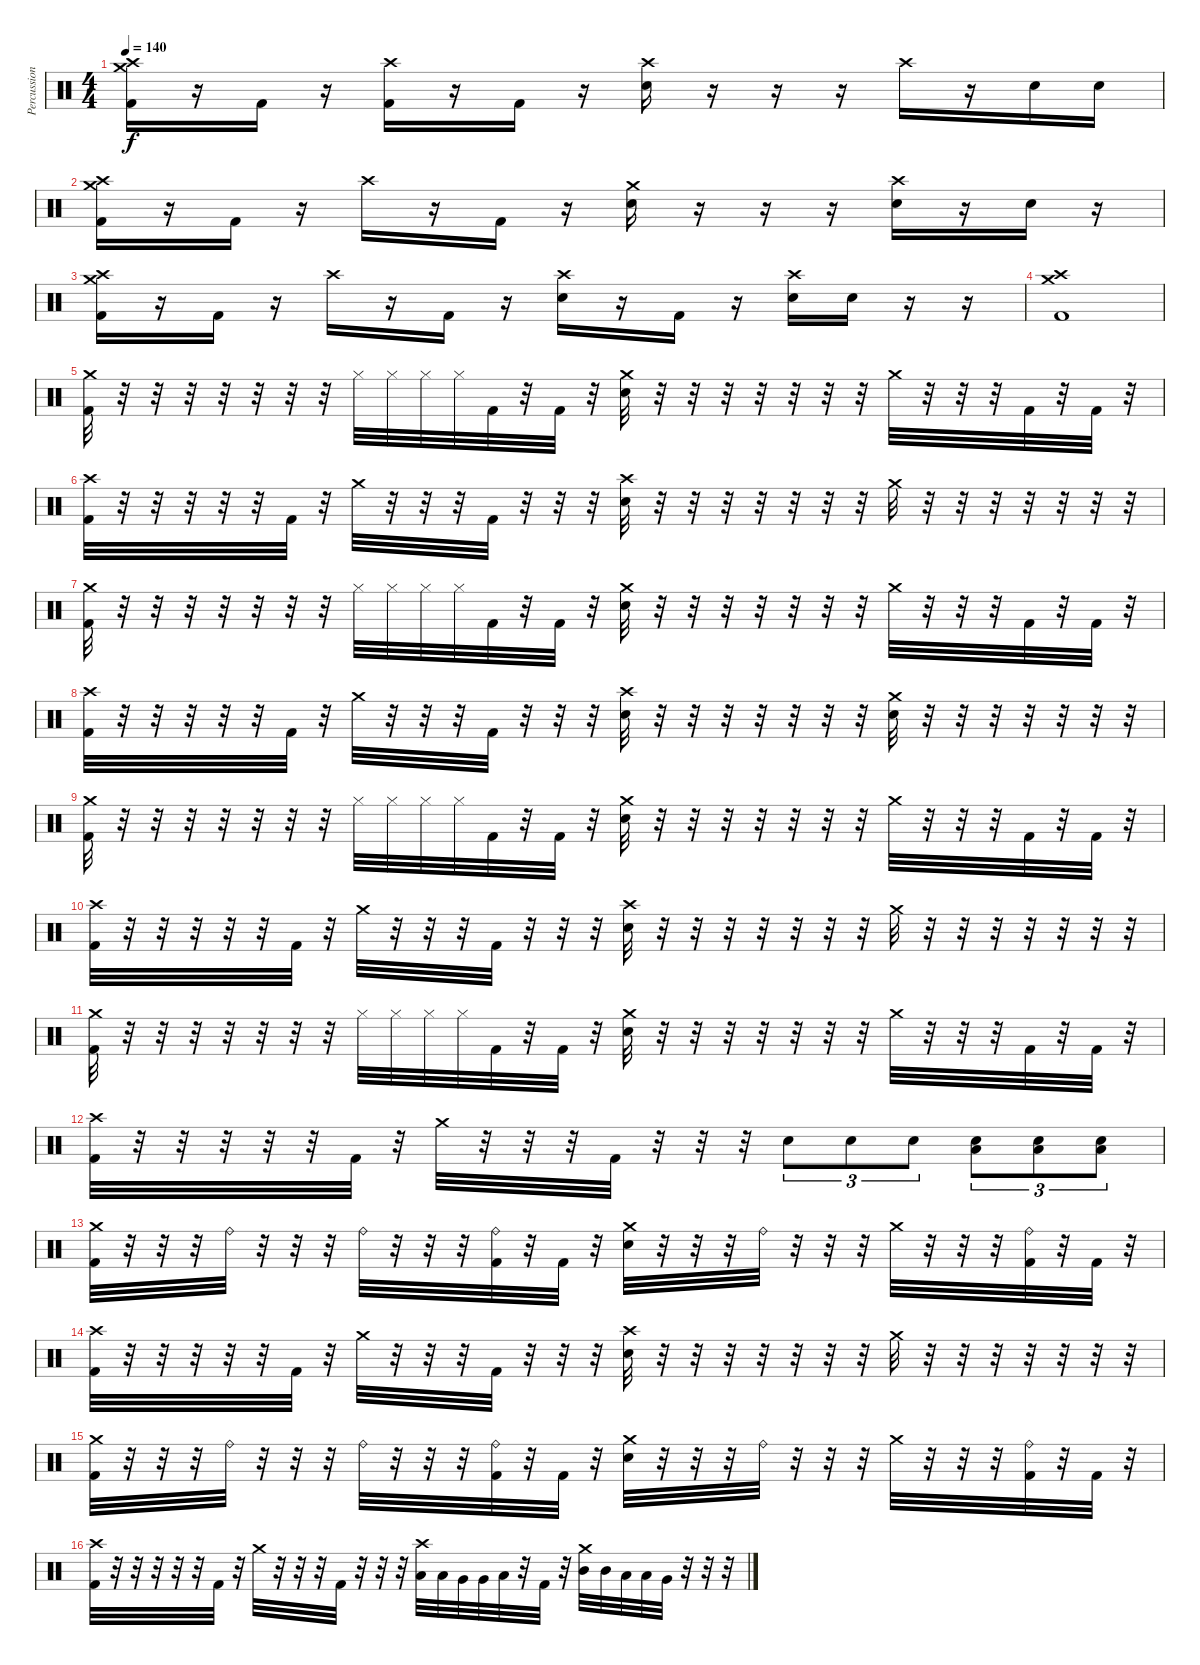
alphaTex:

\track ("Percussion" "Percussion") {instrument percussion}
\staff {score}
\articulation defaults
\ts (4 4)
\tempo 140
\clef neutral
\ks c
("Crash high (hit)" "Crash medium (hit)" "Kick (hit) 2").16{dy f} r.16 "Kick (hit) 2".16 r.16 ("Crash high (hit)" "Kick (hit) 2").16 r.16 "Kick (hit) 2".16 r.16 ("Crash high (hit)" "Electric Snare (hit)").16 r.16 r.16 r.16 "Crash high (hit)".16 r.16 "Electric Snare (hit)".16 "Electric Snare (hit)".16 |
("Crash medium (hit)" "Crash high (hit)" "Kick (hit) 2").16 r.16 "Kick (hit) 2".16 r.16 "Crash high (hit)".16 r.16 "Kick (hit) 2".16 r.16 ("Crash medium (hit)" "Electric Snare (hit)").16 r.16 r.16 r.16 ("Crash high (hit)" "Electric Snare (hit)").16 r.16 "Electric Snare (hit)".16 r.16 |
("Crash high (hit)" "Crash medium (hit)" "Kick (hit) 2").16 r.16 "Kick (hit) 2".16 r.16 "Crash high (hit)".16 r.16 "Kick (hit) 2".16 r.16 ("Crash high (hit)" "Electric Snare (hit)").16 r.16 "Kick (hit) 2".16 r.16 ("Crash high (hit)" "Electric Snare (hit)").16 "Electric Snare (hit)".16 r.16 r.16 |
("Crash high (hit)" "Crash medium (hit)" "Kick (hit) 2").1 |
("Crash medium (hit)" "Kick (hit) 2").32 r.32 r.32 r.32 r.32 r.32 r.32 r.32 "Hi-Hat (closed)".32 "Hi-Hat (closed)".32 "Hi-Hat (closed)".32 "Hi-Hat (closed)".32 "Kick (hit) 2".32 r.32 "Kick (hit) 2".32 r.32 ("Crash medium (hit)" "Electric Snare (hit)").32 r.32 r.32 r.32 r.32 r.32 r.32 r.32 "Crash medium (hit)".32 r.32 r.32 r.32 "Kick (hit) 2".32 r.32 "Kick (hit) 2".32 r.32 |
("Crash high (hit)" "Kick (hit) 2").32 r.32 r.32 r.32 r.32 r.32 "Kick (hit) 2".32 r.32 "Crash medium (hit)".32 r.32 r.32 r.32 "Kick (hit) 2".32 r.32 r.32 r.32 ("Crash high (hit)" "Electric Snare (hit)").32 r.32 r.32 r.32 r.32 r.32 r.32 r.32 "Crash medium (hit)".32 r.32 r.32 r.32 r.32 r.32 r.32 r.32 |
("Crash medium (hit)" "Kick (hit) 2").32 r.32 r.32 r.32 r.32 r.32 r.32 r.32 "Hi-Hat (closed)".32 "Hi-Hat (closed)".32 "Hi-Hat (closed)".32 "Hi-Hat (closed)".32 "Kick (hit) 2".32 r.32 "Kick (hit) 2".32 r.32 ("Crash medium (hit)" "Electric Snare (hit)").32 r.32 r.32 r.32 r.32 r.32 r.32 r.32 "Crash medium (hit)".32 r.32 r.32 r.32 "Kick (hit) 2".32 r.32 "Kick (hit) 2".32 r.32 |
("Crash high (hit)" "Kick (hit) 2").32 r.32 r.32 r.32 r.32 r.32 "Kick (hit) 2".32 r.32 "Crash medium (hit)".32 r.32 r.32 r.32 "Kick (hit) 2".32 r.32 r.32 r.32 ("Crash high (hit)" "Electric Snare (hit)").32 r.32 r.32 r.32 r.32 r.32 r.32 r.32 ("Crash medium (hit)" "Electric Snare (hit)").32 r.32 r.32 r.32 r.32 r.32 r.32 r.32 |
("Crash medium (hit)" "Kick (hit) 2").32 r.32 r.32 r.32 r.32 r.32 r.32 r.32 "Hi-Hat (closed)".32 "Hi-Hat (closed)".32 "Hi-Hat (closed)".32 "Hi-Hat (closed)".32 "Kick (hit) 2".32 r.32 "Kick (hit) 2".32 r.32 ("Crash medium (hit)" "Electric Snare (hit)").32 r.32 r.32 r.32 r.32 r.32 r.32 r.32 "Crash medium (hit)".32 r.32 r.32 r.32 "Kick (hit) 2".32 r.32 "Kick (hit) 2".32 r.32 |
("Crash high (hit)" "Kick (hit) 2").32 r.32 r.32 r.32 r.32 r.32 "Kick (hit) 2".32 r.32 "Crash medium (hit)".32 r.32 r.32 r.32 "Kick (hit) 2".32 r.32 r.32 r.32 ("Crash high (hit)" "Electric Snare (hit)").32 r.32 r.32 r.32 r.32 r.32 r.32 r.32 "Crash medium (hit)".32 r.32 r.32 r.32 r.32 r.32 r.32 r.32 |
("Crash medium (hit)" "Kick (hit) 2").32 r.32 r.32 r.32 r.32 r.32 r.32 r.32 "Hi-Hat (closed)".32 "Hi-Hat (closed)".32 "Hi-Hat (closed)".32 "Hi-Hat (closed)".32 "Kick (hit) 2".32 r.32 "Kick (hit) 2".32 r.32 ("Crash medium (hit)" "Electric Snare (hit)").32 r.32 r.32 r.32 r.32 r.32 r.32 r.32 "Crash medium (hit)".32 r.32 r.32 r.32 "Kick (hit) 2".32 r.32 "Kick (hit) 2".32 r.32 |
("Crash high (hit)" "Kick (hit) 2").32 r.32 r.32 r.32 r.32 r.32 "Kick (hit) 2".32 r.32 "Crash medium (hit)".32 r.32 r.32 r.32 "Kick (hit) 2".32 r.32 r.32 r.32 "Electric Snare (hit)".8{tu (3 2)} "Electric Snare (hit)".8{tu (3 2)} "Electric Snare (hit)".8{tu (3 2)} ("Electric Snare (hit)" "Low Floor Tom (hit)").8{tu (3 2)} ("Electric Snare (hit)" "Low Floor Tom (hit)").8{tu (3 2)} ("Electric Snare (hit)" "Low Floor Tom (hit)").8{tu (3 2)} |
("Crash medium (hit)" "Kick (hit) 2").32 r.32 r.32 r.32 "Ride (bell)".32 r.32 r.32 r.32 "Ride (bell)".32 r.32 r.32 r.32 ("Ride (bell)" "Kick (hit) 2").32 r.32 "Kick (hit) 2".32 r.32 ("Crash medium (hit)" "Electric Snare (hit)").32 r.32 r.32 r.32 "Ride (bell)".32 r.32 r.32 r.32 "Crash medium (hit)".32 r.32 r.32 r.32 ("Ride (bell)" "Kick (hit) 2").32 r.32 "Kick (hit) 2".32 r.32 |
("Crash high (hit)" "Kick (hit) 2").32 r.32 r.32 r.32 r.32 r.32 "Kick (hit) 2".32 r.32 "Crash medium (hit)".32 r.32 r.32 r.32 "Kick (hit) 2".32 r.32 r.32 r.32 ("Crash high (hit)" "Electric Snare (hit)").32 r.32 r.32 r.32 r.32 r.32 r.32 r.32 "Crash medium (hit)".32 r.32 r.32 r.32 r.32 r.32 r.32 r.32 |
("Crash medium (hit)" "Kick (hit) 2").32 r.32 r.32 r.32 "Ride (bell)".32 r.32 r.32 r.32 "Ride (bell)".32 r.32 r.32 r.32 ("Ride (bell)" "Kick (hit) 2").32 r.32 "Kick (hit) 2".32 r.32 ("Crash medium (hit)" "Electric Snare (hit)").32 r.32 r.32 r.32 "Ride (bell)".32 r.32 r.32 r.32 "Crash medium (hit)".32 r.32 r.32 r.32 ("Ride (bell)" "Kick (hit) 2").32 r.32 "Kick (hit) 2".32 r.32 |
("Crash high (hit)" "Kick (hit) 2").32 r.32 r.32 r.32 r.32 r.32 "Kick (hit) 2".32 r.32 "Crash medium (hit)".32 r.32 r.32 r.32 "Kick (hit) 2".32 r.32 r.32 r.32 ("Crash high (hit)" "Low Tom (hit)").32 "Low Tom (hit)".32 "Very Low Tom (hit)".32 "Very Low Tom (hit)".32 "Low Floor Tom (hit)".32 r.32 "Kick (hit) 2".32 r.32 ("Crash medium (hit)" "Mid Tom (hit)").32 "Mid Tom (hit)".32 "Low Tom (hit)".32 "Low Tom (hit)".32 "Very Low Tom (hit)".32 r.32 r.32 r.32
